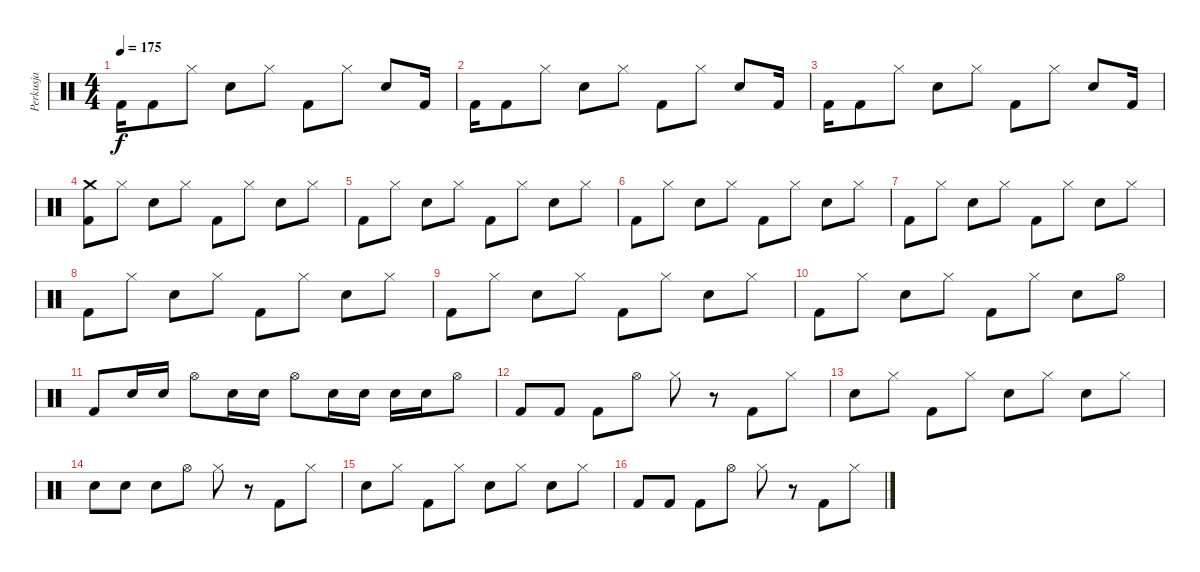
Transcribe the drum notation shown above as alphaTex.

\track ("Perkusja" "Perkusja") {instrument percussion}
\staff {score}
\articulation defaults
\ts (4 4)
\tempo 175
\clef neutral
\ks c "Kick (hit) 2".16{dy f} "Kick (hit) 2".8 "Hi-Hat (closed)".8 "Snare (hit) 2".8 "Hi-Hat (closed)".8 "Kick (hit) 2".8 "Hi-Hat (closed)".8 "Snare (hit) 2".8 "Kick (hit) 2".16
|
"Kick (hit) 2".16 "Kick (hit) 2".8 "Hi-Hat (closed)".8 "Snare (hit) 2".8 "Hi-Hat (closed)".8 "Kick (hit) 2".8 "Hi-Hat (closed)".8 "Snare (hit) 2".8 "Kick (hit) 2".16 |
"Kick (hit) 2".16 "Kick (hit) 2".8 "Hi-Hat (closed)".8 "Snare (hit) 2".8 "Hi-Hat (closed)".8 "Kick (hit) 2".8 "Hi-Hat (closed)".8 "Snare (hit) 2".8 "Kick (hit) 2".16 |
("Kick (hit) 2" "Crash medium (hit)").8 "Hi-Hat (closed)".8 "Snare (hit) 2".8 "Hi-Hat (closed)".8 "Kick (hit) 2".8 "Hi-Hat (closed)".8 "Snare (hit) 2".8 "Hi-Hat (closed)".8 |
"Kick (hit) 2".8 "Hi-Hat (closed)".8 "Snare (hit) 2".8 "Hi-Hat (closed)".8 "Kick (hit) 2".8 "Hi-Hat (closed)".8 "Snare (hit) 2".8 "Hi-Hat (closed)".8 |
"Kick (hit) 2".8 "Hi-Hat (closed)".8 "Snare (hit) 2".8 "Hi-Hat (closed)".8 "Kick (hit) 2".8 "Hi-Hat (closed)".8 "Snare (hit) 2".8 "Hi-Hat (closed)".8 |
"Kick (hit) 2".8 "Hi-Hat (closed)".8 "Snare (hit) 2".8 "Hi-Hat (closed)".8 "Kick (hit) 2".8 "Hi-Hat (closed)".8 "Snare (hit) 2".8 "Hi-Hat (closed)".8 |
"Kick (hit) 2".8 "Hi-Hat (closed)".8 "Snare (hit) 2".8 "Hi-Hat (closed)".8 "Kick (hit) 2".8 "Hi-Hat (closed)".8 "Snare (hit) 2".8 "Hi-Hat (closed)".8 |
"Kick (hit) 2".8 "Hi-Hat (closed)".8 "Snare (hit) 2".8 "Hi-Hat (closed)".8 "Kick (hit) 2".8 "Hi-Hat (closed)".8 "Snare (hit) 2".8 "Hi-Hat (closed)".8 |
"Kick (hit) 2".8 "Hi-Hat (closed)".8 "Snare (hit) 2".8 "Hi-Hat (closed)".8 "Kick (hit) 2".8 "Hi-Hat (closed)".8 "Snare (hit) 2".8 "Hi-Hat (open)".8 |
"Kick (hit) 2".8 "Snare (hit) 2".16 "Snare (hit) 2".16 "Hi-Hat (open)".8 "Snare (hit) 2".16 "Snare (hit) 2".16 "Hi-Hat (open)".8 "Snare (hit) 2".16 "Snare (hit) 2".16 "Snare (hit) 2".16 "Snare (hit) 2".16 "Hi-Hat (open)".8 |
"Kick (hit) 2".8 "Kick (hit) 2".8 "Kick (hit) 2".8 "Hi-Hat (open)".8 "Hi-Hat (closed)".8 r.8 "Kick (hit) 2".8 "Hi-Hat (closed)".8 |
"Snare (hit) 2".8 "Hi-Hat (closed)".8 "Kick (hit) 2".8 "Hi-Hat (closed)".8 "Snare (hit) 2".8 "Hi-Hat (closed)".8 "Snare (hit) 2".8 "Hi-Hat (closed)".8 |
"Snare (hit) 2".8 "Snare (hit) 2".8 "Snare (hit) 2".8 "Hi-Hat (open)".8 "Hi-Hat (closed)".8 r.8 "Kick (hit) 2".8 "Hi-Hat (closed)".8 |
"Snare (hit) 2".8 "Hi-Hat (closed)".8 "Kick (hit) 2".8 "Hi-Hat (closed)".8 "Snare (hit) 2".8 "Hi-Hat (closed)".8 "Snare (hit) 2".8 "Hi-Hat (closed)".8 |
"Kick (hit) 2".8 "Kick (hit) 2".8 "Kick (hit) 2".8 "Hi-Hat (open)".8 "Hi-Hat (closed)".8 r.8 "Kick (hit) 2".8 "Hi-Hat (closed)".8
